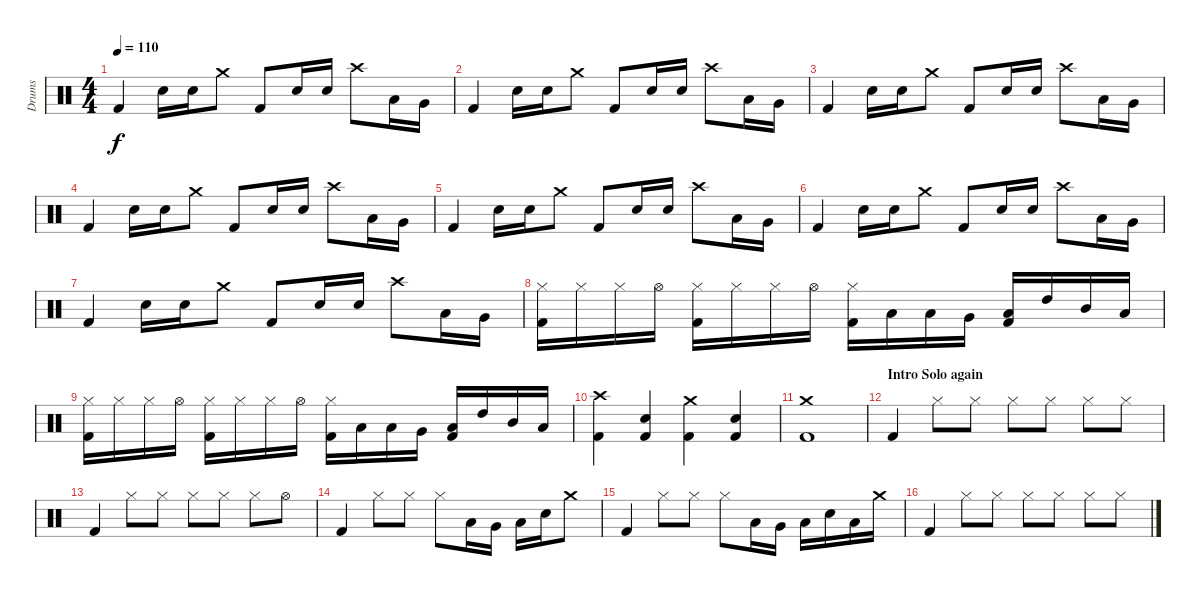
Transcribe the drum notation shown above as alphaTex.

\track ("Drums" "Drums") {instrument percussion}
\staff {score}
\articulation defaults
\ts (4 4)
\tempo 110
\clef neutral
\ks c "Kick (hit) 2".4{dy f} "Snare (hit) 2".16 "Snare (hit) 2".16 "Crash medium (hit)".8 "Kick (hit) 2".8 "Snare (hit) 2".16 "Snare (hit) 2".16 "Crash high (hit)".8 "Low Tom (hit)".16 "Very Low Tom (hit)".16
|
"Kick (hit) 2".4 "Snare (hit) 2".16 "Snare (hit) 2".16 "Crash medium (hit)".8 "Kick (hit) 2".8 "Snare (hit) 2".16 "Snare (hit) 2".16 "Crash high (hit)".8 "Low Tom (hit)".16 "Very Low Tom (hit)".16 |
"Kick (hit) 2".4 "Snare (hit) 2".16 "Snare (hit) 2".16 "Crash medium (hit)".8 "Kick (hit) 2".8 "Snare (hit) 2".16 "Snare (hit) 2".16 "Crash high (hit)".8 "Low Tom (hit)".16 "Very Low Tom (hit)".16 |
"Kick (hit) 2".4 "Snare (hit) 2".16 "Snare (hit) 2".16 "Crash medium (hit)".8 "Kick (hit) 2".8 "Snare (hit) 2".16 "Snare (hit) 2".16 "Crash high (hit)".8 "Low Tom (hit)".16 "Very Low Tom (hit)".16 |
"Kick (hit) 2".4 "Snare (hit) 2".16 "Snare (hit) 2".16 "Crash medium (hit)".8 "Kick (hit) 2".8 "Snare (hit) 2".16 "Snare (hit) 2".16 "Crash high (hit)".8 "Low Tom (hit)".16 "Very Low Tom (hit)".16 |
"Kick (hit) 2".4 "Snare (hit) 2".16 "Snare (hit) 2".16 "Crash medium (hit)".8 "Kick (hit) 2".8 "Snare (hit) 2".16 "Snare (hit) 2".16 "Crash high (hit)".8 "Low Tom (hit)".16 "Very Low Tom (hit)".16 |
"Kick (hit) 2".4 "Snare (hit) 2".16 "Snare (hit) 2".16 "Crash medium (hit)".8 "Kick (hit) 2".8 "Snare (hit) 2".16 "Snare (hit) 2".16 "Crash high (hit)".8 "Low Tom (hit)".16 "Very Low Tom (hit)".16 |
("Hi-Hat (closed)" "Kick (hit) 2").16 "Hi-Hat (closed)".16 "Hi-Hat (closed)".16 "Hi-Hat (open)".16 ("Hi-Hat (closed)" "Kick (hit) 2").16 "Hi-Hat (closed)".16 "Hi-Hat (closed)".16 "Hi-Hat (open)".16 ("Hi-Hat (closed)" "Kick (hit) 2").16 "Low Floor Tom (hit)".16 "Low Tom (hit)".16 "Very Low Tom (hit)".16 ("Low Floor Tom (hit)" "Kick (hit) 2").16 "High Tom (hit)".16 "Mid Tom (hit)".16 "Low Tom (hit)".16 |
("Hi-Hat (closed)" "Kick (hit) 2").16 "Hi-Hat (closed)".16 "Hi-Hat (closed)".16 "Hi-Hat (open)".16 ("Hi-Hat (closed)" "Kick (hit) 2").16 "Hi-Hat (closed)".16 "Hi-Hat (closed)".16 "Hi-Hat (open)".16 ("Hi-Hat (closed)" "Kick (hit) 2").16 "Low Floor Tom (hit)".16 "Low Tom (hit)".16 "Very Low Tom (hit)".16 ("Low Floor Tom (hit)" "Kick (hit) 2").16 "High Tom (hit)".16 "Mid Tom (hit)".16 "Low Tom (hit)".16 |
("Crash high (hit)" "Kick (hit) 2").4 ("Snare (hit) 2" "Kick (hit) 2").4 ("Crash medium (hit)" "Kick (hit) 2").4 ("Snare (hit) 2" "Kick (hit) 2").4 |
("Crash medium (hit)" "Kick (hit) 2").1 |
\section ("" "Intro Solo again")
"Kick (hit) 2".4 "Hi-Hat (closed)".8 "Hi-Hat (closed)".8 "Hi-Hat (closed)".8 "Hi-Hat (closed)".8 "Hi-Hat (closed)".8 "Hi-Hat (closed)".8 |
"Kick (hit) 2".4 "Hi-Hat (closed)".8 "Hi-Hat (closed)".8 "Hi-Hat (closed)".8 "Hi-Hat (closed)".8 "Hi-Hat (closed)".8 "Hi-Hat (open)".8 |
"Kick (hit) 2".4 "Hi-Hat (closed)".8 "Hi-Hat (closed)".8 "Hi-Hat (closed)".8 "Low Tom (hit)".16 "Very Low Tom (hit)".16 "Low Floor Tom (hit)".16 "Snare (hit) 2".16 "Crash medium (hit)".8 |
"Kick (hit) 2".4 "Hi-Hat (closed)".8 "Hi-Hat (closed)".8 "Hi-Hat (closed)".8 "Low Tom (hit)".16 "Very Low Tom (hit)".16 "Low Floor Tom (hit)".16 "Snare (hit) 2".16 "Low Floor Tom (hit)".16 "Crash medium (hit)".16 |
"Kick (hit) 2".4 "Hi-Hat (closed)".8 "Hi-Hat (closed)".8 "Hi-Hat (closed)".8 "Hi-Hat (closed)".8 "Hi-Hat (closed)".8 "Hi-Hat (closed)".8
